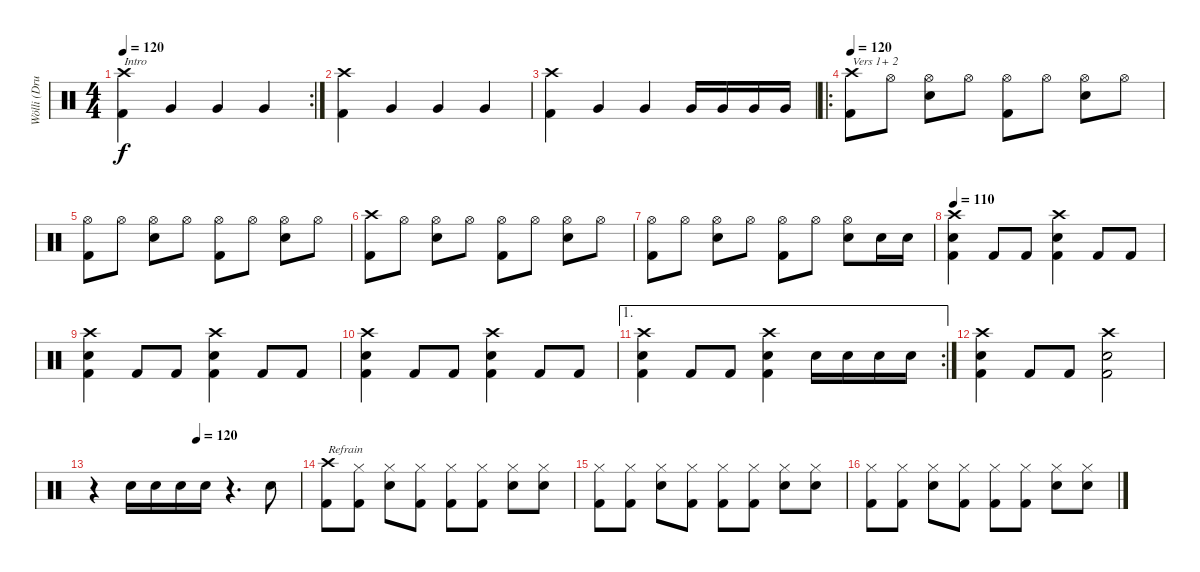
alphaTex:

\track ("Wölli (Drums)" "Wölli (Dru") {instrument percussion}
\staff {score}
\articulation defaults
\rc 2
\ts (4 4)
\tempo 120
\tempo 100
\tempo 120
\clef neutral
\ks c
("Crash high (hit)" "Kick (hit) 2").4{txt "Intro" dy f} "Very Low Tom (hit)".4 "Very Low Tom (hit)".4 "Very Low Tom (hit)".4 |
("Crash high (hit)" "Kick (hit) 2").4 "Very Low Tom (hit)".4 "Very Low Tom (hit)".4 "Very Low Tom (hit)".4 |
("Crash high (hit)" "Kick (hit) 2").4 "Very Low Tom (hit)".4 "Very Low Tom (hit)".4 "Very Low Tom (hit)".16 "Very Low Tom (hit)".16 "Very Low Tom (hit)".16 "Very Low Tom (hit)".16 |
\ro
\tempo 120
("Crash high (hit)" "Kick (hit) 2").8{txt "Vers 1+ 2"} "Hi-Hat (open)".8 ("Hi-Hat (open)" "Snare (hit) 2").8 "Hi-Hat (open)".8 ("Hi-Hat (open)" "Kick (hit) 2").8 "Hi-Hat (open)".8 ("Hi-Hat (open)" "Snare (hit) 2").8 "Hi-Hat (open)".8 |
("Hi-Hat (open)" "Kick (hit) 2").8 "Hi-Hat (open)".8 ("Hi-Hat (open)" "Snare (hit) 2").8 "Hi-Hat (open)".8 ("Hi-Hat (open)" "Kick (hit) 2").8 "Hi-Hat (open)".8 ("Hi-Hat (open)" "Snare (hit) 2").8 "Hi-Hat (open)".8 |
("Crash high (hit)" "Kick (hit) 2").8 "Hi-Hat (open)".8 ("Hi-Hat (open)" "Snare (hit) 2").8 "Hi-Hat (open)".8 ("Hi-Hat (open)" "Kick (hit) 2").8 "Hi-Hat (open)".8 ("Hi-Hat (open)" "Snare (hit) 2").8 "Hi-Hat (open)".8 |
("Hi-Hat (open)" "Kick (hit) 2").8 "Hi-Hat (open)".8 ("Hi-Hat (open)" "Snare (hit) 2").8 "Hi-Hat (open)".8 ("Hi-Hat (open)" "Kick (hit) 2").8 "Hi-Hat (open)".8 ("Hi-Hat (open)" "Snare (hit) 2").8 "Snare (hit) 2".16 "Snare (hit) 2".16 |
\tempo 110
("Crash high (hit)" "Snare (hit) 2" "Kick (hit) 2").4 "Kick (hit) 2".8 "Kick (hit) 2".8 ("Crash high (hit)" "Snare (hit) 2" "Kick (hit) 2").4 "Kick (hit) 2".8 "Kick (hit) 2".8 |
("Crash high (hit)" "Snare (hit) 2" "Kick (hit) 2").4 "Kick (hit) 2".8 "Kick (hit) 2".8 ("Crash high (hit)" "Snare (hit) 2" "Kick (hit) 2").4 "Kick (hit) 2".8 "Kick (hit) 2".8 |
("Crash high (hit)" "Snare (hit) 2" "Kick (hit) 2").4 "Kick (hit) 2".8 "Kick (hit) 2".8 ("Crash high (hit)" "Snare (hit) 2" "Kick (hit) 2").4 "Kick (hit) 2".8 "Kick (hit) 2".8 |
\ae 1
\rc 2
("Crash high (hit)" "Snare (hit) 2" "Kick (hit) 2").4 "Kick (hit) 2".8 "Kick (hit) 2".8 ("Crash high (hit)" "Snare (hit) 2" "Kick (hit) 2").4 "Snare (hit) 2".16 "Snare (hit) 2".16 "Snare (hit) 2".16 "Snare (hit) 2".16 |
("Crash high (hit)" "Snare (hit) 2" "Kick (hit) 2").4 "Kick (hit) 2".8 "Kick (hit) 2".8 ("Crash high (hit)" "Snare (hit) 2" "Kick (hit) 2").2 |
\tempo (120 0.5)
r.4 "Snare (hit) 2".16 "Snare (hit) 2".16 "Snare (hit) 2".16 "Snare (hit) 2".16 r.4{d} "Snare (hit) 2".8 |
("Crash high (hit)" "Kick (hit) 2").8{txt "Refrain"} ("Hi-Hat (closed)" "Kick (hit) 2").8 ("Hi-Hat (closed)" "Snare (hit) 2").8 ("Hi-Hat (closed)" "Kick (hit) 2").8 ("Hi-Hat (closed)" "Kick (hit) 2").8 ("Hi-Hat (closed)" "Kick (hit) 2").8 ("Hi-Hat (closed)" "Snare (hit) 2").8 ("Hi-Hat (closed)" "Snare (hit) 2").8 |
("Hi-Hat (closed)" "Kick (hit) 2").8 ("Hi-Hat (closed)" "Kick (hit) 2").8 ("Hi-Hat (closed)" "Snare (hit) 2").8 ("Hi-Hat (closed)" "Kick (hit) 2").8 ("Hi-Hat (closed)" "Kick (hit) 2").8 ("Hi-Hat (closed)" "Kick (hit) 2").8 ("Hi-Hat (closed)" "Snare (hit) 2").8 ("Hi-Hat (closed)" "Snare (hit) 2").8 |
("Hi-Hat (closed)" "Kick (hit) 2").8 ("Hi-Hat (closed)" "Kick (hit) 2").8 ("Hi-Hat (closed)" "Snare (hit) 2").8 ("Hi-Hat (closed)" "Kick (hit) 2").8 ("Hi-Hat (closed)" "Kick (hit) 2").8 ("Hi-Hat (closed)" "Kick (hit) 2").8 ("Hi-Hat (closed)" "Snare (hit) 2").8 ("Hi-Hat (closed)" "Snare (hit) 2").8
